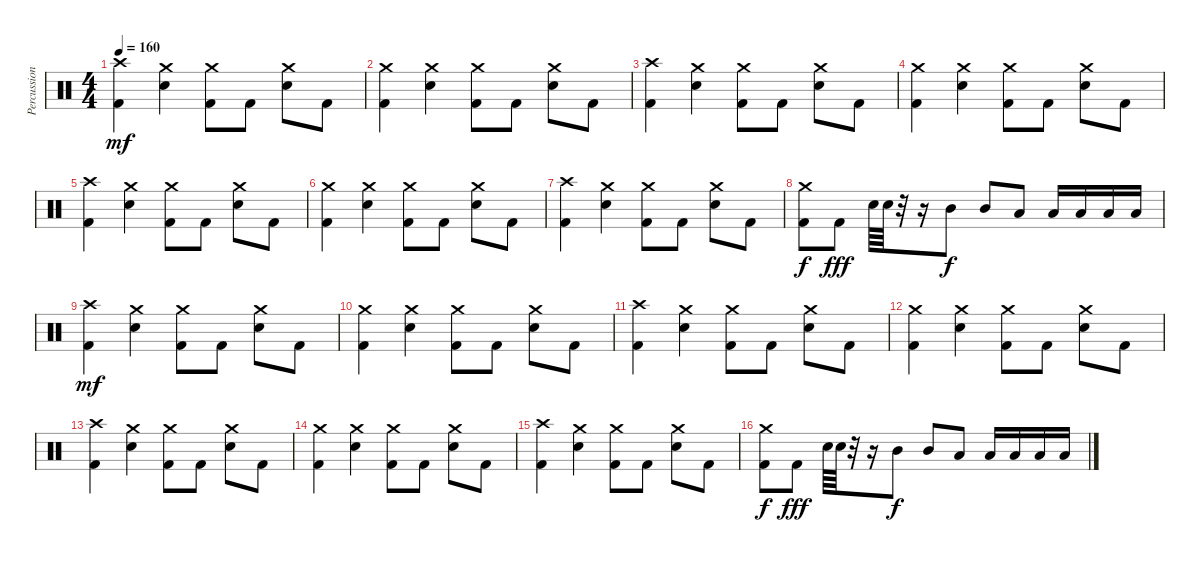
\track ("Percussion" "Percussion") {instrument percussion}
\staff {score}
\articulation defaults
\ts (4 4)
\tempo 160
\clef neutral
\ks c
("Crash high (hit)" "Kick (hit) 2").4{dy mf} ("Crash medium (hit)" "Electric Snare (hit)").4 ("Crash medium (hit)" "Kick (hit) 2").8 "Kick (hit) 2".8 ("Crash medium (hit)" "Electric Snare (hit)").8 "Kick (hit) 2".8 |
("Crash medium (hit)" "Kick (hit) 2").4 ("Crash medium (hit)" "Electric Snare (hit)").4 ("Crash medium (hit)" "Kick (hit) 2").8 "Kick (hit) 2".8 ("Crash medium (hit)" "Electric Snare (hit)").8 "Kick (hit) 2".8 |
("Crash high (hit)" "Kick (hit) 2").4 ("Crash medium (hit)" "Electric Snare (hit)").4 ("Crash medium (hit)" "Kick (hit) 2").8 "Kick (hit) 2".8 ("Crash medium (hit)" "Electric Snare (hit)").8 "Kick (hit) 2".8 |
("Crash medium (hit)" "Kick (hit) 2").4 ("Crash medium (hit)" "Electric Snare (hit)").4 ("Crash medium (hit)" "Kick (hit) 2").8 "Kick (hit) 2".8 ("Crash medium (hit)" "Electric Snare (hit)").8 "Kick (hit) 2".8 |
("Crash high (hit)" "Kick (hit) 2").4 ("Crash medium (hit)" "Electric Snare (hit)").4 ("Crash medium (hit)" "Kick (hit) 2").8 "Kick (hit) 2".8 ("Crash medium (hit)" "Electric Snare (hit)").8 "Kick (hit) 2".8 |
("Crash medium (hit)" "Kick (hit) 2").4 ("Crash medium (hit)" "Electric Snare (hit)").4 ("Crash medium (hit)" "Kick (hit) 2").8 "Kick (hit) 2".8 ("Crash medium (hit)" "Electric Snare (hit)").8 "Kick (hit) 2".8 |
("Crash high (hit)" "Kick (hit) 2").4 ("Crash medium (hit)" "Electric Snare (hit)").4 ("Crash medium (hit)" "Kick (hit) 2").8 "Kick (hit) 2".8 ("Crash medium (hit)" "Electric Snare (hit)").8 "Kick (hit) 2".8 |
("Crash medium (hit)" "Kick (hit) 2").8{dy f} "Kick (hit) 2".8{dy fff} "Electric Snare (hit)".64 "Electric Snare (hit)".64 r.32 r.16 "Mid Tom (hit)".8{dy f} "Mid Tom (hit)".8 "Low Tom (hit)".8 "Low Tom (hit)".16 "Low Tom (hit)".16 "Low Floor Tom (hit)".16 "Low Floor Tom (hit)".16 |
("Crash high (hit)" "Kick (hit) 2").4{dy mf} ("Crash medium (hit)" "Electric Snare (hit)").4 ("Crash medium (hit)" "Kick (hit) 2").8 "Kick (hit) 2".8 ("Crash medium (hit)" "Electric Snare (hit)").8 "Kick (hit) 2".8 |
("Crash medium (hit)" "Kick (hit) 2").4 ("Crash medium (hit)" "Electric Snare (hit)").4 ("Crash medium (hit)" "Kick (hit) 2").8 "Kick (hit) 2".8 ("Crash medium (hit)" "Electric Snare (hit)").8 "Kick (hit) 2".8 |
("Crash high (hit)" "Kick (hit) 2").4 ("Crash medium (hit)" "Electric Snare (hit)").4 ("Crash medium (hit)" "Kick (hit) 2").8 "Kick (hit) 2".8 ("Crash medium (hit)" "Electric Snare (hit)").8 "Kick (hit) 2".8 |
("Crash medium (hit)" "Kick (hit) 2").4 ("Crash medium (hit)" "Electric Snare (hit)").4 ("Crash medium (hit)" "Kick (hit) 2").8 "Kick (hit) 2".8 ("Crash medium (hit)" "Electric Snare (hit)").8 "Kick (hit) 2".8 |
("Crash high (hit)" "Kick (hit) 2").4 ("Crash medium (hit)" "Electric Snare (hit)").4 ("Crash medium (hit)" "Kick (hit) 2").8 "Kick (hit) 2".8 ("Crash medium (hit)" "Electric Snare (hit)").8 "Kick (hit) 2".8 |
("Crash medium (hit)" "Kick (hit) 2").4 ("Crash medium (hit)" "Electric Snare (hit)").4 ("Crash medium (hit)" "Kick (hit) 2").8 "Kick (hit) 2".8 ("Crash medium (hit)" "Electric Snare (hit)").8 "Kick (hit) 2".8 |
("Crash high (hit)" "Kick (hit) 2").4 ("Crash medium (hit)" "Electric Snare (hit)").4 ("Crash medium (hit)" "Kick (hit) 2").8 "Kick (hit) 2".8 ("Crash medium (hit)" "Electric Snare (hit)").8 "Kick (hit) 2".8 |
("Crash medium (hit)" "Kick (hit) 2").8{dy f} "Kick (hit) 2".8{dy fff} "Electric Snare (hit)".64 "Electric Snare (hit)".64 r.32 r.16 "Mid Tom (hit)".8{dy f} "Mid Tom (hit)".8 "Low Tom (hit)".8 "Low Tom (hit)".16 "Low Tom (hit)".16 "Low Floor Tom (hit)".16 "Low Floor Tom (hit)".16
